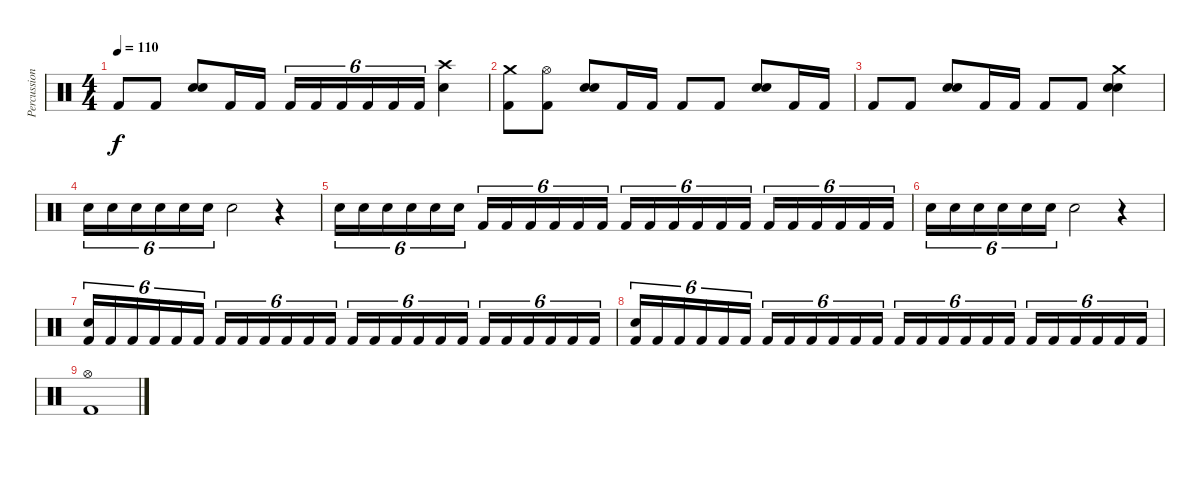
\track ("Percussion" "Percussion") {instrument percussion}
\staff {score}
\articulation defaults
\ts (4 4)
\tempo 110
\clef neutral
\ks c "Kick (hit) 2".8{dy f} "Kick (hit) 2".8
("Electric Snare (hit)" "Electric Snare (hit)").8 "Kick (hit) 2".16 "Kick (hit) 2".16 "Kick (hit) 2".16{tu (6 4)} "Kick (hit) 2".16{tu (6 4)} "Kick (hit) 2".16{tu (6 4)} "Kick (hit) 2".16{tu (6 4)} "Kick (hit) 2".16{tu (6 4)} "Kick (hit) 2".16{tu (6 4)} ("Electric Snare (hit)" "Crash high (hit)").4 |
("Crash medium (hit)" "Kick (hit) 2").8{balance 8} ("Hi-Hat (open)" "Kick (hit) 2").8 ("Electric Snare (hit)" "Electric Snare (hit)").8 "Kick (hit) 2".16 "Kick (hit) 2".16 "Kick (hit) 2".8 "Kick (hit) 2".8 ("Electric Snare (hit)" "Electric Snare (hit)").8 "Kick (hit) 2".16 "Kick (hit) 2".16 |
"Kick (hit) 2".8 "Kick (hit) 2".8 ("Electric Snare (hit)" "Electric Snare (hit)").8 "Kick (hit) 2".16 "Kick (hit) 2".16 "Kick (hit) 2".8 "Kick (hit) 2".8 ("Crash medium (hit)" "Electric Snare (hit)" "Electric Snare (hit)").4 |
"Electric Snare (hit)".16{tu (6 4)} "Electric Snare (hit)".16{tu (6 4)} "Electric Snare (hit)".16{tu (6 4)} "Electric Snare (hit)".16{tu (6 4)} "Electric Snare (hit)".16{tu (6 4)} "Electric Snare (hit)".16{tu (6 4)} "Electric Snare (hit)".2 r.4 |
"Electric Snare (hit)".16{tu (6 4) balance 8} "Electric Snare (hit)".16{tu (6 4)} "Electric Snare (hit)".16{tu (6 4)} "Electric Snare (hit)".16{tu (6 4)} "Electric Snare (hit)".16{tu (6 4)} "Electric Snare (hit)".16{tu (6 4)} "Kick (hit) 2".16{tu (6 4) balance 1} "Kick (hit) 2".16{tu (6 4)} "Kick (hit) 2".16{tu (6 4)} "Kick (hit) 2".16{tu (6 4)} "Kick (hit) 2".16{tu (6 4)} "Kick (hit) 2".16{tu (6 4)} "Kick (hit) 2".16{tu (6 4) balance 8} "Kick (hit) 2".16{tu (6 4)} "Kick (hit) 2".16{tu (6 4)} "Kick (hit) 2".16{tu (6 4)} "Kick (hit) 2".16{tu (6 4)} "Kick (hit) 2".16{tu (6 4)} "Kick (hit) 2".16{tu (6 4) balance 1} "Kick (hit) 2".16{tu (6 4)} "Kick (hit) 2".16{tu (6 4)} "Kick (hit) 2".16{tu (6 4)} "Kick (hit) 2".16{tu (6 4)} "Kick (hit) 2".16{tu (6 4)} |
"Electric Snare (hit)".16{tu (6 4) balance 8} "Electric Snare (hit)".16{tu (6 4)} "Electric Snare (hit)".16{tu (6 4)} "Electric Snare (hit)".16{tu (6 4)} "Electric Snare (hit)".16{tu (6 4)} "Electric Snare (hit)".16{tu (6 4)} "Electric Snare (hit)".2 r.4 |
("Kick (hit) 2" "Snare (hit) 2").16{tu (6 4) balance 8} "Kick (hit) 2".16{tu (6 4)} "Kick (hit) 2".16{tu (6 4)} "Kick (hit) 2".16{tu (6 4)} "Kick (hit) 2".16{tu (6 4)} "Kick (hit) 2".16{tu (6 4)} "Kick (hit) 2".16{tu (6 4) balance 1} "Kick (hit) 2".16{tu (6 4)} "Kick (hit) 2".16{tu (6 4)} "Kick (hit) 2".16{tu (6 4)} "Kick (hit) 2".16{tu (6 4)} "Kick (hit) 2".16{tu (6 4)} "Kick (hit) 2".16{tu (6 4) balance 8} "Kick (hit) 2".16{tu (6 4)} "Kick (hit) 2".16{tu (6 4)} "Kick (hit) 2".16{tu (6 4)} "Kick (hit) 2".16{tu (6 4)} "Kick (hit) 2".16{tu (6 4)} "Kick (hit) 2".16{tu (6 4) balance 1} "Kick (hit) 2".16{tu (6 4)} "Kick (hit) 2".16{tu (6 4)} "Kick (hit) 2".16{tu (6 4)} "Kick (hit) 2".16{tu (6 4)} "Kick (hit) 2".16{tu (6 4)} |
("Kick (hit) 2" "Snare (hit) 2").16{tu (6 4) balance 8} "Kick (hit) 2".16{tu (6 4)} "Kick (hit) 2".16{tu (6 4)} "Kick (hit) 2".16{tu (6 4)} "Kick (hit) 2".16{tu (6 4)} "Kick (hit) 2".16{tu (6 4)} "Kick (hit) 2".16{tu (6 4) balance 1} "Kick (hit) 2".16{tu (6 4)} "Kick (hit) 2".16{tu (6 4)} "Kick (hit) 2".16{tu (6 4)} "Kick (hit) 2".16{tu (6 4)} "Kick (hit) 2".16{tu (6 4)} "Kick (hit) 2".16{tu (6 4) balance 8} "Kick (hit) 2".16{tu (6 4)} "Kick (hit) 2".16{tu (6 4)} "Kick (hit) 2".16{tu (6 4)} "Kick (hit) 2".16{tu (6 4)} "Kick (hit) 2".16{tu (6 4)} "Kick (hit) 2".16{tu (6 4) balance 1} "Kick (hit) 2".16{tu (6 4)} "Kick (hit) 2".16{tu (6 4)} "Kick (hit) 2".16{tu (6 4)} "Kick (hit) 2".16{tu (6 4)} "Kick (hit) 2".16{tu (6 4)} |
("Hi-Hat (open)" "Kick (hit) 2").1{balance 8}
